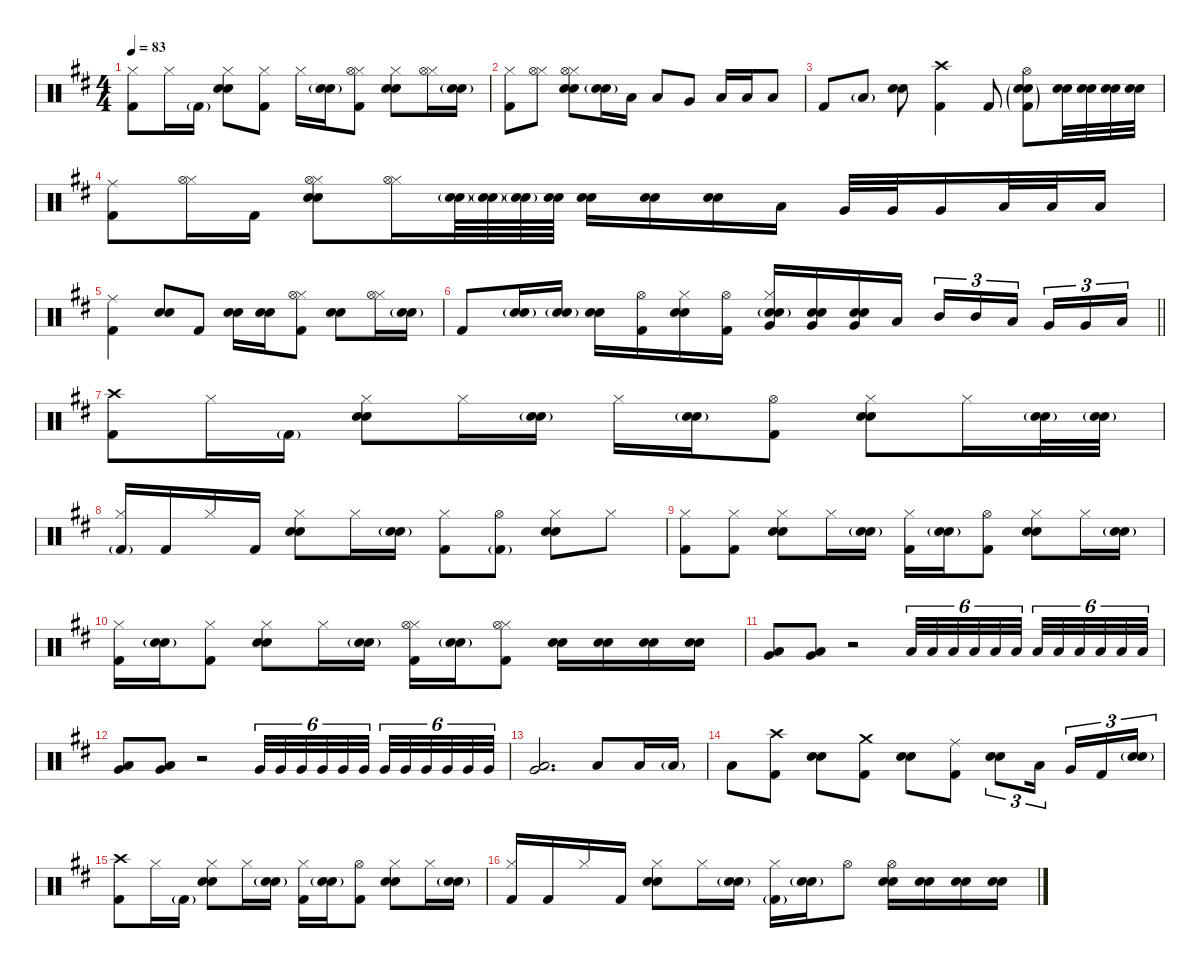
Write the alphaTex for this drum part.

\defaultSystemsLayout 4
\hideDynamics
\bracketExtendMode nobrackets
\singleTrackTrackNamePolicy hidden
\multiTrackTrackNamePolicy hidden
\firstSystemTrackNameMode fullname
\firstSystemTrackNameOrientation horizontal
\otherSystemsTrackNameOrientation horizontal
\track ("Batterie" "drm.") {defaultSystemsLayout 4 instrument percussion}
\staff {score}
\articulation defaults
\ts (4 4)
\tempo 83
\clef neutral
\ks bminor
("Hi-Hat (closed)"{acc forcenatural} "Kick (hit) 2"{acc forcenatural}).8{dy f beam Down} "Hi-Hat (closed)"{acc forcenatural}.16{beam Down} "Kick (hit) 2"{g acc forcenatural}.16{dy mf beam Down} ("Hi-Hat (closed)"{acc forcenatural} "Snare (hit) 2"{acc forcenatural} "Snare (hit) 2"{acc forcenatural}).8{dy f beam Down} ("Hi-Hat (closed)"{acc forcenatural} "Kick (hit) 2"{acc forcenatural}).8{beam Down} "Hi-Hat (closed)"{acc forcenatural}.16{beam Down} ("Snare (hit) 2"{g acc forcenatural} "Snare (hit) 2"{g acc forcenatural}).16{dy mp beam Down} ("Hi-Hat (closed)"{acc forcenatural} "Hi-Hat (open)"{acc forcenatural} "Kick (hit) 2"{acc forcenatural}).8{dy f beam Down} ("Hi-Hat (closed)"{acc forcenatural} "Snare (hit) 2"{acc forcenatural} "Snare (hit) 2"{acc forcenatural}).8{beam Down} ("Hi-Hat (closed)"{acc forcenatural} "Hi-Hat (open)"{acc forcenatural}).16{beam Down} ("Snare (hit) 2"{g acc forcenatural} "Snare (hit) 2"{g acc forcenatural}).16{dy mp beam Down} |
("Hi-Hat (closed)"{acc forcenatural} "Kick (hit) 2"{acc forcenatural}).8{dy f beam Down} ("Hi-Hat (closed)"{acc forcenatural} "Hi-Hat (open)"{acc forcenatural}).8{beam Down} ("Hi-Hat (closed)"{acc forcenatural} "Hi-Hat (open)"{acc forcenatural} "Snare (hit) 2"{acc forcenatural} "Snare (hit) 2"{acc forcenatural}).8{beam Down} ("Snare (hit) 2"{g acc forcenatural} "Snare (hit) 2"{g acc forcenatural}).16{beam Down} "Low Tom (hit)"{acc forcenatural}.16{beam Down} "Low Tom (hit)"{acc forcenatural}.8{beam Up} "Very Low Tom (hit)"{acc forcenatural}.8{beam Up} "Low Floor Tom (hit)"{acc forcenatural}.16{beam Up} "Low Floor Tom (hit)"{acc forcenatural}.16{beam Up} "Low Floor Tom (hit)"{acc forcenatural}.8{beam Up} |
"Kick (hit) 2"{acc forcenatural}.8{dy mf beam Up} "Low Tom (hit)"{g acc forcenatural}.8{dy f beam Up} ("Snare (hit) 2"{acc forcenatural} "Snare (hit) 2"{acc forcenatural}).8{dy mf beam Down} ("Crash high (hit)"{acc forcenatural} "Kick (hit) 2"{acc forcenatural}).4{dy f beam Down} "Kick (hit) 2"{acc forcenatural}.8{dy mf beam Up} ("Hi-Hat (open)"{acc forcenatural} "Snare (hit) 2"{g acc forcenatural} "Snare (hit) 2"{g acc forcenatural} "Kick (hit) 2"{g acc forcenatural}).8{dy mp beam Down} ("Snare (hit) 2"{acc forcenatural} "Snare (hit) 2"{acc forcenatural}).32{dy mf beam Down} ("Snare (hit) 2"{acc forcenatural} "Snare (hit) 2"{acc forcenatural}).32{dy mp beam Down} ("Snare (hit) 2"{acc forcenatural} "Snare (hit) 2"{acc forcenatural}).32{beam Down} ("Snare (hit) 2"{acc forcenatural} "Snare (hit) 2"{acc forcenatural}).32{beam Down} |
("Ride (middle)"{acc forcenatural} "Kick (hit) 2"{acc forcenatural}).8{dy mf beam Down} ("Hi-Hat (closed)"{acc forcenatural} "Hi-Hat (open)"{acc forcenatural}).16{dy f beam Down} "Kick (hit) 2"{acc forcenatural}.16{dy mf beam Down} ("Hi-Hat (closed)"{acc forcenatural} "Hi-Hat (open)"{acc forcenatural} "Snare (hit) 2"{acc forcenatural} "Snare (hit) 2"{acc forcenatural}).8{dy f beam Down} ("Hi-Hat (closed)"{acc forcenatural} "Hi-Hat (open)"{acc forcenatural}).16{beam Down} ("Snare (hit) 2"{g acc forcenatural} "Snare (hit) 2"{g acc forcenatural}).64{dy mp beam Down} ("Snare (hit) 2"{g acc forcenatural} "Snare (hit) 2"{g acc forcenatural}).64{dy mf beam Down} ("Snare (hit) 2"{g acc forcenatural} "Snare (hit) 2"{g acc forcenatural}).64{beam Down} ("Snare (hit) 2"{acc forcenatural} "Snare (hit) 2"{acc forcenatural}).64{dy mp beam Down} ("Snare (hit) 2"{acc forcenatural} "Snare (hit) 2"{acc forcenatural}).16{dy mf beam Down} ("Snare (hit) 2"{acc forcenatural} "Snare (hit) 2"{acc forcenatural}).16{beam Down} ("Snare (hit) 2"{acc forcenatural} "Snare (hit) 2"{acc forcenatural}).16{beam Down} "Low Tom (hit)"{acc forcenatural}.16{dy f beam Down} "Very Low Tom (hit)"{acc forcenatural}.32{dy ff beam Up} "Very Low Tom (hit)"{acc forcenatural}.32{beam Up} "Very Low Tom (hit)"{acc forcenatural}.16{beam Up} "Low Floor Tom (hit)"{acc forcenatural}.32{beam Up} "Low Floor Tom (hit)"{acc forcenatural}.32{beam Up} "Low Floor Tom (hit)"{acc forcenatural}.16{beam Up} |
("Ride (middle)"{acc forcenatural} "Kick (hit) 2"{acc forcenatural}).4{dy f beam Down} ("Snare (hit) 2"{acc forcenatural} "Snare (hit) 2"{acc forcenatural}).8{dy mf beam Up} "Kick (hit) 2"{acc forcenatural}.8{beam Up} ("Snare (hit) 2"{acc forcenatural} "Snare (hit) 2"{acc forcenatural}).16{dy mp beam Down} ("Snare (hit) 2"{acc forcenatural} "Snare (hit) 2"{acc forcenatural}).16{beam Down} ("Hi-Hat (closed)"{acc forcenatural} "Hi-Hat (open)"{acc forcenatural} "Kick (hit) 2"{acc forcenatural}).8{dy f beam Down} ("Snare (hit) 2"{acc forcenatural} "Snare (hit) 2"{acc forcenatural}).8{dy mf beam Down} ("Hi-Hat (closed)"{acc forcenatural} "Hi-Hat (open)"{acc forcenatural}).16{dy f beam Down} ("Snare (hit) 2"{g acc forcenatural} "Snare (hit) 2"{g acc forcenatural}).16{beam Down} |
\barLineRight lightlight "Kick (hit) 2"{acc forcenatural}.8{dy mf beam Up}
("Snare (hit) 2"{g acc forcenatural} "Snare (hit) 2"{g acc forcenatural}).16{beam Up} ("Snare (hit) 2"{g acc forcenatural} "Snare (hit) 2"{g acc forcenatural}).16{dy f beam Up} ("Snare (hit) 2"{acc forcenatural} "Snare (hit) 2"{acc forcenatural}).16{dy mf beam Down} ("Hi-Hat (open)"{acc forcenatural} "Kick (hit) 2"{acc forcenatural}).16{beam Down} ("Hi-Hat (closed)"{acc forcenatural} "Snare (hit) 2"{acc forcenatural} "Snare (hit) 2"{acc forcenatural}).16{dy f beam Down} ("Hi-Hat (open)"{acc forcenatural} "Kick (hit) 2"{acc forcenatural}).16{dy mf beam Down} ("Hi-Hat (closed)"{acc forcenatural} "Snare (hit) 2"{g acc forcenatural} "Snare (hit) 2"{g acc forcenatural} "Very Low Tom (hit)"{acc forcenatural}).16{dy f beam Up} ("Snare (hit) 2"{acc forcenatural} "Snare (hit) 2"{acc forcenatural} "Very Low Tom (hit)"{acc forcenatural}).16{dy mf beam Up} ("Snare (hit) 2"{acc forcenatural} "Snare (hit) 2"{acc forcenatural} "Very Low Tom (hit)"{acc forcenatural}).16{beam Up} "Low Tom (hit)"{acc forcenatural}.16{dy mp beam Up} "Mid Tom (hit)"{acc forcenatural}.16{tu (3 2) dy f beam Up} "Mid Tom (hit)"{acc forcenatural}.16{tu (3 2) beam Up} "Low Tom (hit)"{acc forcenatural}.16{tu (3 2) beam Up} "Very Low Tom (hit)"{acc forcenatural}.16{tu (3 2) dy mf beam Up} "Very Low Tom (hit)"{acc forcenatural}.16{tu (3 2) beam Up} "Low Floor Tom (hit)"{acc forcenatural}.16{tu (3 2) beam Up} |
("Crash high (hit)"{acc forcenatural} "Kick (hit) 2"{acc forcenatural}).8{dy mp beam Down} "Hi-Hat (closed)"{acc forcenatural}.16{dy f beam Down} "Kick (hit) 2"{g acc forcenatural}.16{dy mf beam Down} ("Hi-Hat (closed)"{acc forcenatural} "Snare (hit) 2"{acc forcenatural} "Snare (hit) 2"{acc forcenatural}).8{dy f beam Down} "Hi-Hat (closed)"{acc forcenatural}.16{beam Down} ("Snare (hit) 2"{g acc forcenatural} "Snare (hit) 2"{g acc forcenatural}).16{beam Down} "Hi-Hat (closed)"{acc forcenatural}.16{beam Down} ("Snare (hit) 2"{g acc forcenatural} "Snare (hit) 2"{g acc forcenatural}).16{dy mp beam Down} ("Hi-Hat (open)"{acc forcenatural} "Kick (hit) 2"{acc forcenatural}).8{beam Down} ("Hi-Hat (closed)"{acc forcenatural} "Snare (hit) 2"{acc forcenatural} "Snare (hit) 2"{acc forcenatural}).8{dy f beam Down} "Hi-Hat (closed)"{acc forcenatural}.16{beam Down} ("Snare (hit) 2"{g acc forcenatural} "Snare (hit) 2"{g acc forcenatural}).32{dy p beam Down} ("Snare (hit) 2"{g acc forcenatural} "Snare (hit) 2"{g acc forcenatural}).32{beam Down} |
("Hi-Hat (closed)"{acc forcenatural} "Kick (hit) 2"{g acc forcenatural}).16{dy f beam Up} "Kick (hit) 2"{acc forcenatural}.16{dy mf beam Up} "Hi-Hat (closed)"{acc forcenatural}.16{dy f beam Up} "Kick (hit) 2"{acc forcenatural}.16{dy mf beam Up} ("Hi-Hat (closed)"{acc forcenatural} "Snare (hit) 2"{acc forcenatural} "Snare (hit) 2"{acc forcenatural}).8{dy f beam Down} "Hi-Hat (closed)"{acc forcenatural}.16{beam Down} ("Snare (hit) 2"{g acc forcenatural} "Snare (hit) 2"{g acc forcenatural}).16{dy mf beam Down} ("Hi-Hat (closed)"{acc forcenatural} "Kick (hit) 2"{acc forcenatural}).8{dy f beam Down} ("Hi-Hat (open)"{acc forcenatural} "Kick (hit) 2"{g acc forcenatural}).8{dy mp beam Down} ("Hi-Hat (closed)"{acc forcenatural} "Snare (hit) 2"{acc forcenatural} "Snare (hit) 2"{acc forcenatural}).8{dy f beam Down} "Hi-Hat (closed)"{acc forcenatural}.8{beam Down} |
("Hi-Hat (closed)"{acc forcenatural} "Kick (hit) 2"{acc forcenatural}).8{beam Down} ("Hi-Hat (closed)"{acc forcenatural} "Kick (hit) 2"{acc forcenatural}).8{beam Down} ("Hi-Hat (closed)"{acc forcenatural} "Snare (hit) 2"{acc forcenatural} "Snare (hit) 2"{acc forcenatural}).8{beam Down} "Hi-Hat (closed)"{acc forcenatural}.16{beam Down} ("Snare (hit) 2"{g acc forcenatural} "Snare (hit) 2"{g acc forcenatural}).16{dy mp beam Down} ("Hi-Hat (closed)"{acc forcenatural} "Kick (hit) 2"{acc forcenatural}).16{dy f beam Down} ("Snare (hit) 2"{g acc forcenatural} "Snare (hit) 2"{g acc forcenatural}).16{dy mp beam Down} ("Hi-Hat (open)"{acc forcenatural} "Kick (hit) 2"{acc forcenatural}).8{beam Down} ("Hi-Hat (closed)"{acc forcenatural} "Snare (hit) 2"{acc forcenatural} "Snare (hit) 2"{acc forcenatural}).8{dy f beam Down} "Hi-Hat (closed)"{acc forcenatural}.16{beam Down} ("Snare (hit) 2"{g acc forcenatural} "Snare (hit) 2"{g acc forcenatural}).16{dy mp beam Down} |
("Hi-Hat (closed)"{acc forcenatural} "Kick (hit) 2"{acc forcenatural}).16{dy f beam Down} ("Snare (hit) 2"{g acc forcenatural} "Snare (hit) 2"{g acc forcenatural}).16{dy mp beam Down} ("Hi-Hat (closed)"{acc forcenatural} "Kick (hit) 2"{acc forcenatural}).8{dy f beam Down} ("Hi-Hat (closed)"{acc forcenatural} "Snare (hit) 2"{acc forcenatural} "Snare (hit) 2"{acc forcenatural}).8{beam Down} "Hi-Hat (closed)"{acc forcenatural}.16{beam Down} ("Snare (hit) 2"{g acc forcenatural} "Snare (hit) 2"{g acc forcenatural}).16{dy mp beam Down} ("Hi-Hat (closed)"{acc forcenatural} "Hi-Hat (open)"{acc forcenatural} "Kick (hit) 2"{acc forcenatural}).16{dy f beam Down} ("Snare (hit) 2"{g acc forcenatural} "Snare (hit) 2"{g acc forcenatural}).16{dy mp beam Down} ("Hi-Hat (closed)"{acc forcenatural} "Hi-Hat (open)"{acc forcenatural} "Kick (hit) 2"{acc forcenatural}).8{dy f beam Down} ("Snare (hit) 2"{acc forcenatural} "Snare (hit) 2"{acc forcenatural}).16{dy mp beam Down} ("Snare (hit) 2"{acc forcenatural} "Snare (hit) 2"{acc forcenatural}).16{beam Down} ("Snare (hit) 2"{acc forcenatural} "Snare (hit) 2"{acc forcenatural}).16{beam Down} ("Snare (hit) 2"{acc forcenatural} "Snare (hit) 2"{acc forcenatural}).16{beam Down} |
("Very Low Tom (hit)"{acc forcenatural} "Low Floor Tom (hit)"{acc forcenatural}).8{dy f beam Up} ("Very Low Tom (hit)"{acc forcenatural} "Low Floor Tom (hit)"{acc forcenatural}).8{beam Up} r.2{beam Up} "Low Floor Tom (hit)"{acc forcenatural}.32{tu (6 4) beam Up} "Low Floor Tom (hit)"{acc forcenatural}.32{tu (6 4) dy mf beam Up} "Low Floor Tom (hit)"{acc forcenatural}.32{tu (6 4) dy mp beam Up} "Low Floor Tom (hit)"{acc forcenatural}.32{tu (6 4) dy p beam Up} "Low Floor Tom (hit)"{acc forcenatural}.32{tu (6 4) beam Up} "Low Floor Tom (hit)"{acc forcenatural}.32{tu (6 4) beam Up} "Low Floor Tom (hit)"{acc forcenatural}.32{tu (6 4) beam Up} "Low Floor Tom (hit)"{acc forcenatural}.32{tu (6 4) beam Up} "Low Floor Tom (hit)"{acc forcenatural}.32{tu (6 4) dy mp beam Up} "Low Floor Tom (hit)"{acc forcenatural}.32{tu (6 4) dy mf beam Up} "Low Floor Tom (hit)"{acc forcenatural}.32{tu (6 4) beam Up} "Low Floor Tom (hit)"{acc forcenatural}.32{tu (6 4) dy f beam Up} |
("Very Low Tom (hit)"{acc forcenatural} "Low Floor Tom (hit)"{acc forcenatural}).8{beam Up} ("Very Low Tom (hit)"{acc forcenatural} "Low Floor Tom (hit)"{acc forcenatural}).8{beam Up} r.2{beam Up} "Very Low Tom (hit)"{acc forcenatural}.32{tu (6 4) beam Up} "Very Low Tom (hit)"{acc forcenatural}.32{tu (6 4) dy mf beam Up} "Very Low Tom (hit)"{acc forcenatural}.32{tu (6 4) dy mp beam Up} "Very Low Tom (hit)"{acc forcenatural}.32{tu (6 4) dy p beam Up} "Very Low Tom (hit)"{acc forcenatural}.32{tu (6 4) beam Up} "Very Low Tom (hit)"{acc forcenatural}.32{tu (6 4) beam Up} "Very Low Tom (hit)"{acc forcenatural}.32{tu (6 4) beam Up} "Very Low Tom (hit)"{acc forcenatural}.32{tu (6 4) beam Up} "Very Low Tom (hit)"{acc forcenatural}.32{tu (6 4) dy mp beam Up} "Very Low Tom (hit)"{acc forcenatural}.32{tu (6 4) dy mf beam Up} "Very Low Tom (hit)"{acc forcenatural}.32{tu (6 4) beam Up} "Very Low Tom (hit)"{acc forcenatural}.32{tu (6 4) dy f beam Up} |
("Very Low Tom (hit)"{acc forcenatural} "Low Floor Tom (hit)"{acc forcenatural}).2{d beam Up} "Low Floor Tom (hit)"{acc forcenatural}.8{beam Up} "Low Floor Tom (hit)"{acc forcenatural}.16{beam Up} "Low Floor Tom (hit)"{g acc forcenatural}.16{beam Up} |
"Low Floor Tom (hit)"{acc forcenatural}.8{beam Down} ("Crash high (hit)"{acc forcenatural} "Kick (hit) 2"{acc forcenatural}).8{dy mp beam Down} ("Snare (hit) 2"{acc forcenatural} "Snare (hit) 2"{acc forcenatural}).8{dy mf beam Down} ("Crash medium (hit)"{acc forcenatural} "Kick (hit) 2"{acc forcenatural}).8{beam Down} ("Snare (hit) 2"{acc forcenatural} "Snare (hit) 2"{acc forcenatural}).8{dy mp beam Down} ("Ride (middle)"{acc forcenatural} "Kick (hit) 2"{acc forcenatural}).8{dy f beam Down} ("Snare (hit) 2"{acc forcenatural} "Snare (hit) 2"{acc forcenatural}).8{tu (3 2) dy mp beam Down} "Low Tom (hit)"{acc forcenatural}.16{tu (3 2) dy f beam Down} "Very Low Tom (hit)"{acc forcenatural}.16{tu (3 2) beam Up} "Kick (hit) 2"{acc forcenatural}.16{tu (3 2) dy mf beam Up} ("Snare (hit) 2"{g acc forcenatural} "Snare (hit) 2"{g acc forcenatural}).16{tu (3 2) beam Up} |
("Crash high (hit)"{acc forcenatural} "Kick (hit) 2"{acc forcenatural}).8{dy mp beam Down} "Hi-Hat (closed)"{acc forcenatural}.16{dy f beam Down} "Kick (hit) 2"{g acc forcenatural}.16{dy mf beam Down} ("Hi-Hat (closed)"{acc forcenatural} "Snare (hit) 2"{acc forcenatural} "Snare (hit) 2"{acc forcenatural}).8{dy f beam Down} "Hi-Hat (closed)"{acc forcenatural}.16{beam Down} ("Snare (hit) 2"{g acc forcenatural} "Snare (hit) 2"{g acc forcenatural}).16{dy mf beam Down} ("Hi-Hat (closed)"{acc forcenatural} "Kick (hit) 2"{acc forcenatural}).16{dy f beam Down} ("Snare (hit) 2"{g acc forcenatural} "Snare (hit) 2"{g acc forcenatural}).16{dy mp beam Down} ("Hi-Hat (open)"{acc forcenatural} "Kick (hit) 2"{acc forcenatural}).8{dy mf beam Down} ("Hi-Hat (closed)"{acc forcenatural} "Snare (hit) 2"{acc forcenatural} "Snare (hit) 2"{acc forcenatural}).8{dy f beam Down} "Hi-Hat (closed)"{acc forcenatural}.16{beam Down} ("Snare (hit) 2"{g acc forcenatural} "Snare (hit) 2"{g acc forcenatural}).16{dy mp beam Down} |
("Hi-Hat (closed)"{acc forcenatural} "Kick (hit) 2"{acc forcenatural}).16{dy f beam Up} "Kick (hit) 2"{acc forcenatural}.16{dy mf beam Up} "Hi-Hat (closed)"{acc forcenatural}.16{dy f beam Up} "Kick (hit) 2"{acc forcenatural}.16{dy mf beam Up} ("Hi-Hat (closed)"{acc forcenatural} "Snare (hit) 2"{acc forcenatural} "Snare (hit) 2"{acc forcenatural}).8{dy f beam Down} "Hi-Hat (closed)"{acc forcenatural}.16{beam Down} ("Snare (hit) 2"{g acc forcenatural} "Snare (hit) 2"{g acc forcenatural}).16{dy mf beam Down} ("Hi-Hat (closed)"{acc forcenatural} "Kick (hit) 2"{g acc forcenatural}).16{dy f beam Down} ("Snare (hit) 2"{g acc forcenatural} "Snare (hit) 2"{g acc forcenatural}).16{dy mp beam Down} "Hi-Hat (open)"{acc forcenatural}.8{beam Down} ("Hi-Hat (open)"{acc forcenatural} "Snare (hit) 2"{acc forcenatural} "Snare (hit) 2"{acc forcenatural}).16{beam Down} ("Snare (hit) 2"{acc forcenatural} "Snare (hit) 2"{acc forcenatural}).16{beam Down} ("Snare (hit) 2"{acc forcenatural} "Snare (hit) 2"{acc forcenatural}).16{beam Down} ("Snare (hit) 2"{acc forcenatural} "Snare (hit) 2"{acc forcenatural}).16{beam Down}
